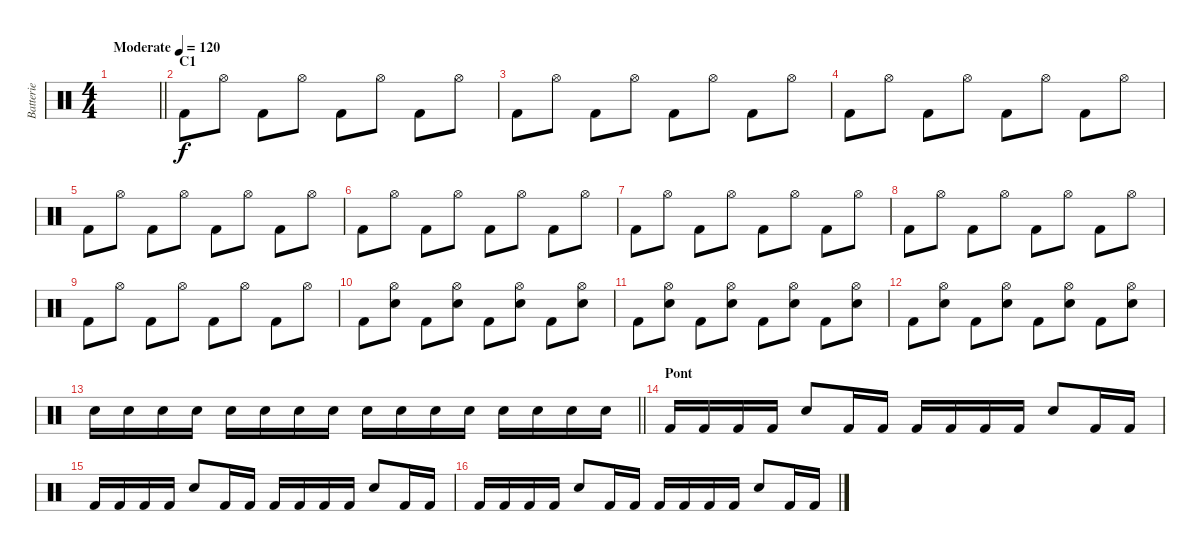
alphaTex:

\track ("Batterie" "Batterie") {instrument percussion}
\staff {score}
\articulation defaults
\ts (4 4)
\tempo (120 "Moderate")
\clef neutral
\barLineRight lightlight
\ks c
|
\section ("" "C1")
"Kick (hit) 2".8 "Hi-Hat (open)".8 "Kick (hit) 2".8 "Hi-Hat (open)".8 "Kick (hit) 2".8 "Hi-Hat (open)".8 "Kick (hit) 2".8 "Hi-Hat (open)".8 |
"Kick (hit) 2".8 "Hi-Hat (open)".8 "Kick (hit) 2".8 "Hi-Hat (open)".8 "Kick (hit) 2".8 "Hi-Hat (open)".8 "Kick (hit) 2".8 "Hi-Hat (open)".8 |
"Kick (hit) 2".8 "Hi-Hat (open)".8 "Kick (hit) 2".8 "Hi-Hat (open)".8 "Kick (hit) 2".8 "Hi-Hat (open)".8 "Kick (hit) 2".8 "Hi-Hat (open)".8 |
"Kick (hit) 2".8 "Hi-Hat (open)".8 "Kick (hit) 2".8 "Hi-Hat (open)".8 "Kick (hit) 2".8 "Hi-Hat (open)".8 "Kick (hit) 2".8 "Hi-Hat (open)".8 |
"Kick (hit) 2".8 "Hi-Hat (open)".8 "Kick (hit) 2".8 "Hi-Hat (open)".8 "Kick (hit) 2".8 "Hi-Hat (open)".8 "Kick (hit) 2".8 "Hi-Hat (open)".8 |
"Kick (hit) 2".8 "Hi-Hat (open)".8 "Kick (hit) 2".8 "Hi-Hat (open)".8 "Kick (hit) 2".8 "Hi-Hat (open)".8 "Kick (hit) 2".8 "Hi-Hat (open)".8 |
"Kick (hit) 2".8 "Hi-Hat (open)".8 "Kick (hit) 2".8 "Hi-Hat (open)".8 "Kick (hit) 2".8 "Hi-Hat (open)".8 "Kick (hit) 2".8 "Hi-Hat (open)".8 |
"Kick (hit) 2".8 "Hi-Hat (open)".8 "Kick (hit) 2".8 "Hi-Hat (open)".8 "Kick (hit) 2".8 "Hi-Hat (open)".8 "Kick (hit) 2".8 "Hi-Hat (open)".8 |
"Kick (hit) 2".8 ("Hi-Hat (open)" "Electric Snare (hit)").8 "Kick (hit) 2".8 ("Hi-Hat (open)" "Electric Snare (hit)").8 "Kick (hit) 2".8 ("Hi-Hat (open)" "Electric Snare (hit)").8 "Kick (hit) 2".8 ("Hi-Hat (open)" "Electric Snare (hit)").8 |
"Kick (hit) 2".8 ("Hi-Hat (open)" "Electric Snare (hit)").8 "Kick (hit) 2".8 ("Hi-Hat (open)" "Electric Snare (hit)").8 "Kick (hit) 2".8 ("Hi-Hat (open)" "Electric Snare (hit)").8 "Kick (hit) 2".8 ("Hi-Hat (open)" "Electric Snare (hit)").8 |
"Kick (hit) 2".8 ("Hi-Hat (open)" "Electric Snare (hit)").8 "Kick (hit) 2".8 ("Hi-Hat (open)" "Electric Snare (hit)").8 "Kick (hit) 2".8 ("Hi-Hat (open)" "Electric Snare (hit)").8 "Kick (hit) 2".8 ("Hi-Hat (open)" "Electric Snare (hit)").8 |
\barLineRight lightlight "Electric Snare (hit)".16 "Electric Snare (hit)".16 "Electric Snare (hit)".16 "Electric Snare (hit)".16 "Electric Snare (hit)".16 "Electric Snare (hit)".16 "Electric Snare (hit)".16 "Electric Snare (hit)".16 "Electric Snare (hit)".16 "Electric Snare (hit)".16 "Electric Snare (hit)".16 "Electric Snare (hit)".16 "Electric Snare (hit)".16 "Electric Snare (hit)".16 "Electric Snare (hit)".16 "Electric Snare (hit)".16
|
\section ("" "Pont")
"Kick (hit) 2".16 "Kick (hit) 2".16 "Kick (hit) 2".16 "Kick (hit) 2".16 "Electric Snare (hit)".8 "Kick (hit) 2".16 "Kick (hit) 2".16 "Kick (hit) 2".16 "Kick (hit) 2".16 "Kick (hit) 2".16 "Kick (hit) 2".16 "Electric Snare (hit)".8 "Kick (hit) 2".16 "Kick (hit) 2".16 |
"Kick (hit) 2".16 "Kick (hit) 2".16 "Kick (hit) 2".16 "Kick (hit) 2".16 "Electric Snare (hit)".8 "Kick (hit) 2".16 "Kick (hit) 2".16 "Kick (hit) 2".16 "Kick (hit) 2".16 "Kick (hit) 2".16 "Kick (hit) 2".16 "Electric Snare (hit)".8 "Kick (hit) 2".16 "Kick (hit) 2".16 |
"Kick (hit) 2".16 "Kick (hit) 2".16 "Kick (hit) 2".16 "Kick (hit) 2".16 "Electric Snare (hit)".8 "Kick (hit) 2".16 "Kick (hit) 2".16 "Kick (hit) 2".16 "Kick (hit) 2".16 "Kick (hit) 2".16 "Kick (hit) 2".16 "Electric Snare (hit)".8 "Kick (hit) 2".16 "Kick (hit) 2".16
